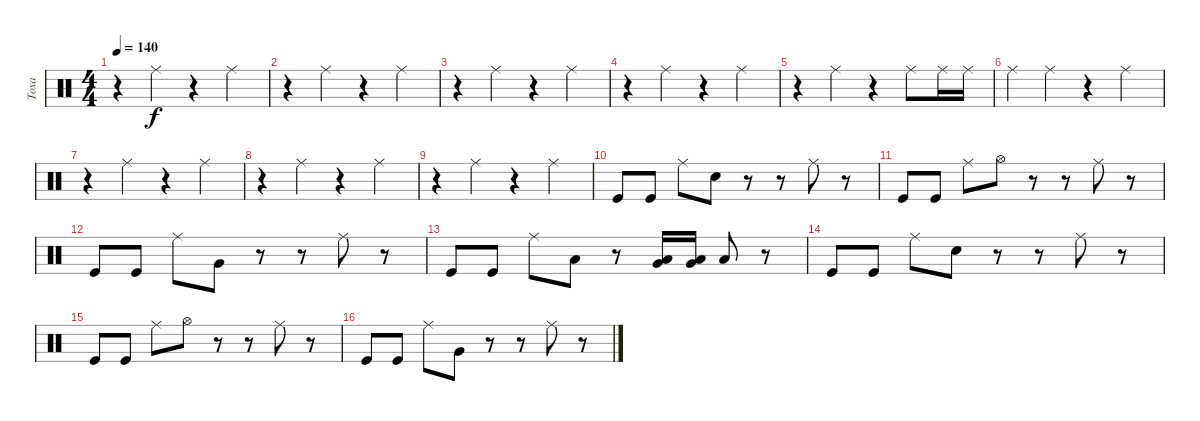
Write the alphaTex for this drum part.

\track ("Тоха" "Тоха") {instrument percussion}
\staff {score}
\articulation defaults
\ts (4 4)
\tempo 140
\clef neutral
\ks c
r.4{dy f} "Ride (middle)".4 r.4 "Ride (middle)".4 |
r.4 "Ride (middle)".4 r.4 "Ride (middle)".4 |
r.4 "Ride (middle)".4 r.4 "Ride (middle)".4 |
r.4 "Ride (middle)".4 r.4 "Ride (middle)".4 |
r.4 "Ride (middle)".4 r.4 "Ride (middle)".8 "Ride (middle)".16 "Ride (middle)".16 |
"Ride (middle)".4 "Ride (middle)".4 r.4 "Ride (middle)".4 |
r.4 "Ride (middle)".4 r.4 "Ride (middle)".4 |
r.4 "Ride (middle)".4 r.4 "Ride (middle)".4 |
r.4 "Ride (middle)".4 r.4 "Ride (middle)".4 |
"Kick (hit)".8{volume 9} "Kick (hit)".8 "Ride (middle)".8 "Snare (hit) 2".8 r.8 r.8 "Ride (middle)".8 r.8 |
"Kick (hit)".8 "Kick (hit)".8 "Ride (middle)".8 "Hi-Hat (open)".8 r.8 r.8 "Ride (middle)".8 r.8 |
"Kick (hit)".8 "Kick (hit)".8 "Ride (middle)".8 "Very Low Tom (hit)".8 r.8 r.8 "Ride (middle)".8 r.8 |
"Kick (hit)".8 "Kick (hit)".8 "Ride (middle)".8 "Low Floor Tom (hit)".8 r.8 ("Low Floor Tom (hit)" "Very Low Tom (hit)").16 ("Low Floor Tom (hit)" "Very Low Tom (hit)").16 "Low Floor Tom (hit)".8 r.8 |
"Kick (hit)".8 "Kick (hit)".8 "Ride (middle)".8 "Snare (hit) 2".8 r.8 r.8 "Ride (middle)".8 r.8 |
"Kick (hit)".8 "Kick (hit)".8 "Ride (middle)".8 "Hi-Hat (open)".8 r.8 r.8 "Ride (middle)".8 r.8 |
"Kick (hit)".8 "Kick (hit)".8 "Ride (middle)".8 "Very Low Tom (hit)".8 r.8 r.8 "Ride (middle)".8 r.8
